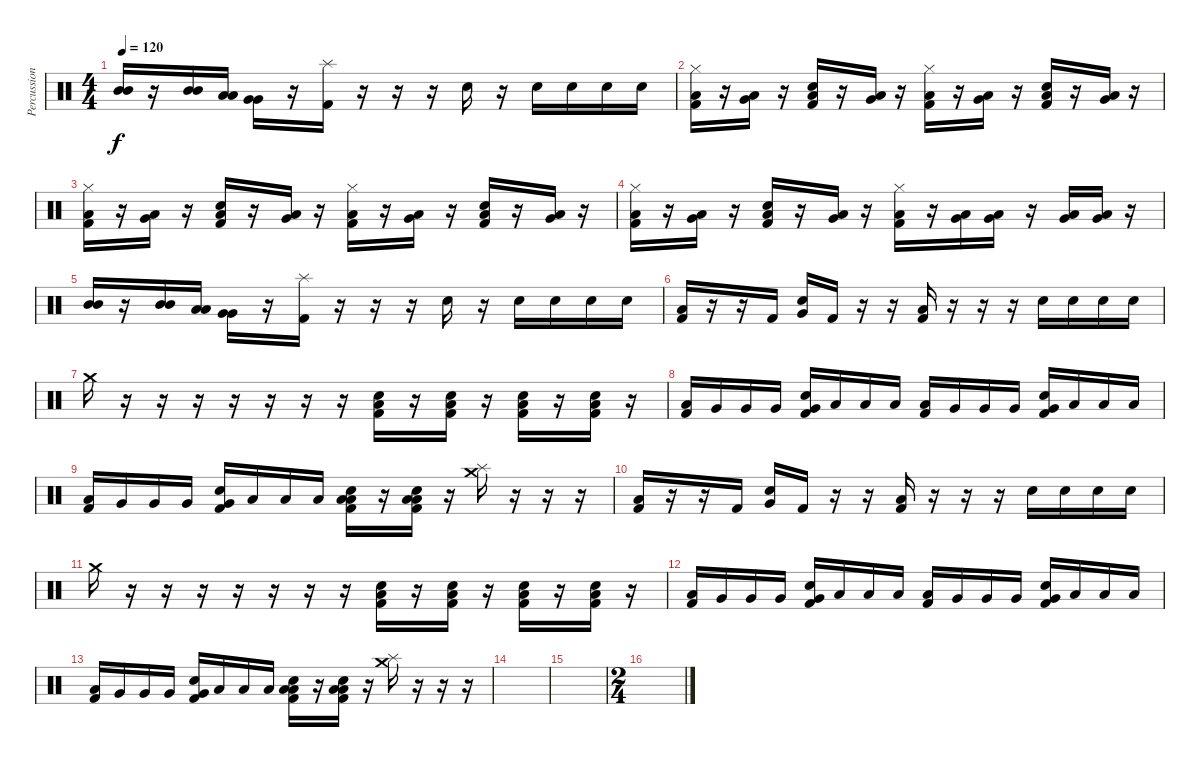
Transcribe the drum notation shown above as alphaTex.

\track ("Percussion" "Percussion") {instrument percussion}
\staff {score}
\articulation defaults
\ts (4 4)
\tempo 120
\clef neutral
\ks c
("Mid Tom (hit)" "Mid Tom (hit)").16{dy f} r.16 ("Mid Tom (hit)" "Mid Tom (hit)").16 ("Low Tom (hit)" "Low Tom (hit)").16 ("Very Low Tom (hit)" "Very Low Tom (hit)").16 r.16 ("Splash (hit)" "Kick (hit) 2").16 r.16 r.16 r.16 "Snare (hit) 2".16 r.16 "Snare (hit) 2".16 "Snare (hit) 2".16 "Snare (hit) 2".16 "Snare (hit) 2".16 |
("Hi-Hat (closed)" "Low Tom (hit)" "Kick (hit) 2").16 r.16 ("Very Low Tom (hit)" "Low Tom (hit)").16 r.16 ("Snare (hit) 2" "Low Tom (hit)" "Kick (hit) 2").16 r.16 ("Very Low Tom (hit)" "Low Tom (hit)").16 r.16 ("Hi-Hat (closed)" "Low Tom (hit)" "Kick (hit) 2").16 r.16 ("Very Low Tom (hit)" "Low Tom (hit)").16 r.16 ("Snare (hit) 2" "Low Tom (hit)" "Kick (hit) 2").16 r.16 ("Very Low Tom (hit)" "Low Tom (hit)").16 r.16 |
("Hi-Hat (closed)" "Low Tom (hit)" "Kick (hit) 2").16 r.16 ("Very Low Tom (hit)" "Low Tom (hit)").16 r.16 ("Snare (hit) 2" "Low Tom (hit)" "Kick (hit) 2").16 r.16 ("Very Low Tom (hit)" "Low Tom (hit)").16 r.16 ("Hi-Hat (closed)" "Low Tom (hit)" "Kick (hit) 2").16 r.16 ("Very Low Tom (hit)" "Low Tom (hit)").16 r.16 ("Snare (hit) 2" "Low Tom (hit)" "Kick (hit) 2").16 r.16 ("Very Low Tom (hit)" "Low Tom (hit)").16 r.16 |
("Hi-Hat (closed)" "Low Tom (hit)" "Kick (hit) 2").16 r.16 ("Very Low Tom (hit)" "Low Tom (hit)").16 r.16 ("Snare (hit) 2" "Low Tom (hit)" "Kick (hit) 2").16 r.16 ("Very Low Tom (hit)" "Low Tom (hit)").16 r.16 ("Hi-Hat (closed)" "Low Tom (hit)" "Kick (hit) 2").16 r.16 ("Very Low Tom (hit)" "Low Tom (hit)").16 ("Very Low Tom (hit)" "Low Tom (hit)").16 r.16 ("Very Low Tom (hit)" "Low Tom (hit)").16 ("Very Low Tom (hit)" "Low Tom (hit)").16 r.16 |
("Mid Tom (hit)" "Mid Tom (hit)").16 r.16 ("Mid Tom (hit)" "Mid Tom (hit)").16 ("Low Tom (hit)" "Low Tom (hit)").16 ("Very Low Tom (hit)" "Very Low Tom (hit)").16 r.16 ("Splash (hit)" "Kick (hit) 2").16 r.16 r.16 r.16 "Snare (hit) 2".16 r.16 "Snare (hit) 2".16 "Snare (hit) 2".16 "Snare (hit) 2".16 "Snare (hit) 2".16 |
("Low Tom (hit)" "Kick (hit) 2").16 r.16 r.16 "Kick (hit) 2".16 ("Snare (hit) 2" "Very Low Tom (hit)").16 "Kick (hit) 2".16 r.16 r.16 ("Low Tom (hit)" "Kick (hit) 2").16 r.16 r.16 r.16 "Snare (hit) 2".16 "Snare (hit) 2".16 "Snare (hit) 2".16 "Snare (hit) 2".16 |
"Crash medium (hit)".16 r.16 r.16 r.16 r.16 r.16 r.16 r.16 ("Snare (hit) 2" "Low Tom (hit)" "Kick (hit) 2").16 r.16 ("Snare (hit) 2" "Low Tom (hit)" "Kick (hit) 2").16 r.16 ("Snare (hit) 2" "Low Tom (hit)" "Kick (hit) 2").16 r.16 ("Snare (hit) 2" "Low Tom (hit)" "Kick (hit) 2").16 r.16 |
("Low Tom (hit)" "Kick (hit) 2").16 "Very Low Tom (hit)".16 "Very Low Tom (hit)".16 "Very Low Tom (hit)".16 ("Snare (hit) 2" "Very Low Tom (hit)" "Kick (hit) 2").16 "Low Floor Tom (hit)".16 "Low Floor Tom (hit)".16 "Low Floor Tom (hit)".16 ("Low Tom (hit)" "Kick (hit) 2").16 "Very Low Tom (hit)".16 "Very Low Tom (hit)".16 "Very Low Tom (hit)".16 ("Snare (hit) 2" "Very Low Tom (hit)" "Kick (hit) 2").16 "Low Floor Tom (hit)".16 "Low Floor Tom (hit)".16 "Low Floor Tom (hit)".16 |
("Low Tom (hit)" "Kick (hit) 2").16 "Very Low Tom (hit)".16 "Very Low Tom (hit)".16 "Very Low Tom (hit)".16 ("Snare (hit) 2" "Very Low Tom (hit)" "Kick (hit) 2").16 "Low Floor Tom (hit)".16 "Low Floor Tom (hit)".16 "Low Floor Tom (hit)".16 ("Low Tom (hit)" "Low Tom (hit)" "Snare (hit) 2" "Kick (hit) 2").16 r.16 ("Low Tom (hit)" "Low Tom (hit)" "Snare (hit) 2" "Kick (hit) 2").16 r.16 ("Splash (hit)" "Crash medium (hit)").16 r.16 r.16 r.16 |
("Low Tom (hit)" "Kick (hit) 2").16 r.16 r.16 "Kick (hit) 2".16 ("Snare (hit) 2" "Very Low Tom (hit)").16 "Kick (hit) 2".16 r.16 r.16 ("Low Tom (hit)" "Kick (hit) 2").16 r.16 r.16 r.16 "Snare (hit) 2".16 "Snare (hit) 2".16 "Snare (hit) 2".16 "Snare (hit) 2".16 |
"Crash medium (hit)".16 r.16 r.16 r.16 r.16 r.16 r.16 r.16 ("Snare (hit) 2" "Low Tom (hit)" "Kick (hit) 2").16 r.16 ("Snare (hit) 2" "Low Tom (hit)" "Kick (hit) 2").16 r.16 ("Snare (hit) 2" "Low Tom (hit)" "Kick (hit) 2").16 r.16 ("Snare (hit) 2" "Low Tom (hit)" "Kick (hit) 2").16 r.16 |
("Low Tom (hit)" "Kick (hit) 2").16 "Very Low Tom (hit)".16 "Very Low Tom (hit)".16 "Very Low Tom (hit)".16 ("Snare (hit) 2" "Very Low Tom (hit)" "Kick (hit) 2").16 "Low Floor Tom (hit)".16 "Low Floor Tom (hit)".16 "Low Floor Tom (hit)".16 ("Low Tom (hit)" "Kick (hit) 2").16 "Very Low Tom (hit)".16 "Very Low Tom (hit)".16 "Very Low Tom (hit)".16 ("Snare (hit) 2" "Very Low Tom (hit)" "Kick (hit) 2").16 "Low Floor Tom (hit)".16 "Low Floor Tom (hit)".16 "Low Floor Tom (hit)".16 |
("Low Tom (hit)" "Kick (hit) 2").16 "Very Low Tom (hit)".16 "Very Low Tom (hit)".16 "Very Low Tom (hit)".16 ("Snare (hit) 2" "Very Low Tom (hit)" "Kick (hit) 2").16 "Low Floor Tom (hit)".16 "Low Floor Tom (hit)".16 "Low Floor Tom (hit)".16 ("Low Tom (hit)" "Low Tom (hit)" "Snare (hit) 2" "Kick (hit) 2").16 r.16 ("Low Tom (hit)" "Low Tom (hit)" "Snare (hit) 2" "Kick (hit) 2").16 r.16 ("Splash (hit)" "Crash medium (hit)").16 r.16 r.16 r.16 |
|
|
\ts (2 4)
